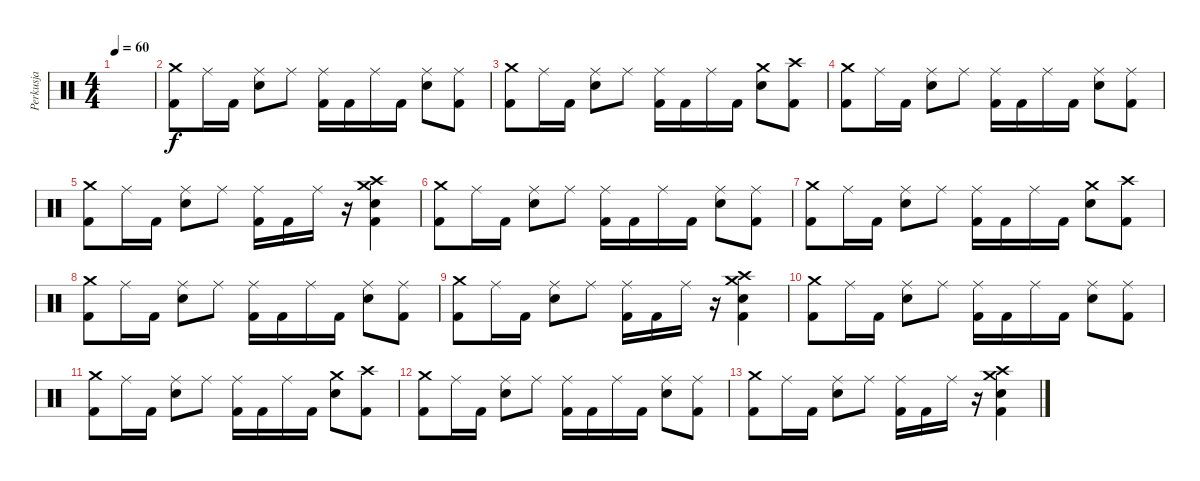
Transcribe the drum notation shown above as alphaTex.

\track ("Perkusja" "Perkusja") {instrument percussion}
\staff {score}
\articulation defaults
\ts (4 4)
\tempo 60
\clef neutral
\ks c
|
("Crash medium (hit)" "Kick (hit) 2").8 "Ride (middle)".16 "Kick (hit) 2".16 ("Ride (middle)" "Electric Snare (hit)").8 "Ride (middle)".8 ("Ride (middle)" "Kick (hit) 2").16 "Kick (hit) 2".16 "Ride (middle)".16 "Kick (hit) 2".16 ("Ride (middle)" "Electric Snare (hit)").8 ("Ride (middle)" "Kick (hit) 2").8 |
("Crash medium (hit)" "Kick (hit) 2").8 "Ride (middle)".16 "Kick (hit) 2".16 ("Ride (middle)" "Electric Snare (hit)").8 "Ride (middle)".8 ("Ride (middle)" "Kick (hit) 2").16 "Kick (hit) 2".16 "Ride (middle)".16 "Kick (hit) 2".16 ("Crash medium (hit)" "Electric Snare (hit)").8 ("Crash high (hit)" "Kick (hit) 2").8 |
("Crash medium (hit)" "Kick (hit) 2").8 "Ride (middle)".16 "Kick (hit) 2".16 ("Ride (middle)" "Electric Snare (hit)").8 "Ride (middle)".8 ("Ride (middle)" "Kick (hit) 2").16 "Kick (hit) 2".16 "Ride (middle)".16 "Kick (hit) 2".16 ("Ride (middle)" "Electric Snare (hit)").8 ("Ride (middle)" "Kick (hit) 2").8 |
("Crash medium (hit)" "Kick (hit) 2").8 "Ride (middle)".16 "Kick (hit) 2".16 ("Ride (middle)" "Electric Snare (hit)").8 "Ride (middle)".8 ("Ride (middle)" "Kick (hit) 2").16 "Kick (hit) 2".16 "Ride (middle)".16 r.16 ("Kick (hit) 2" "Crash high (hit)" "Crash medium (hit)" "Electric Snare (hit)").4 |
("Crash medium (hit)" "Kick (hit) 2").8 "Ride (middle)".16 "Kick (hit) 2".16 ("Ride (middle)" "Electric Snare (hit)").8 "Ride (middle)".8 ("Ride (middle)" "Kick (hit) 2").16 "Kick (hit) 2".16 "Ride (middle)".16 "Kick (hit) 2".16 ("Ride (middle)" "Electric Snare (hit)").8 ("Ride (middle)" "Kick (hit) 2").8 |
("Crash medium (hit)" "Kick (hit) 2").8 "Ride (middle)".16 "Kick (hit) 2".16 ("Ride (middle)" "Electric Snare (hit)").8 "Ride (middle)".8 ("Ride (middle)" "Kick (hit) 2").16 "Kick (hit) 2".16 "Ride (middle)".16 "Kick (hit) 2".16 ("Crash medium (hit)" "Electric Snare (hit)").8 ("Crash high (hit)" "Kick (hit) 2").8 |
("Crash medium (hit)" "Kick (hit) 2").8 "Ride (middle)".16 "Kick (hit) 2".16 ("Ride (middle)" "Electric Snare (hit)").8 "Ride (middle)".8 ("Ride (middle)" "Kick (hit) 2").16 "Kick (hit) 2".16 "Ride (middle)".16 "Kick (hit) 2".16 ("Ride (middle)" "Electric Snare (hit)").8 ("Ride (middle)" "Kick (hit) 2").8 |
("Crash medium (hit)" "Kick (hit) 2").8 "Ride (middle)".16 "Kick (hit) 2".16 ("Ride (middle)" "Electric Snare (hit)").8 "Ride (middle)".8 ("Ride (middle)" "Kick (hit) 2").16 "Kick (hit) 2".16 "Ride (middle)".16 r.16 ("Kick (hit) 2" "Crash high (hit)" "Crash medium (hit)" "Electric Snare (hit)").4 |
("Crash medium (hit)" "Kick (hit) 2").8 "Ride (middle)".16 "Kick (hit) 2".16 ("Ride (middle)" "Electric Snare (hit)").8 "Ride (middle)".8 ("Ride (middle)" "Kick (hit) 2").16 "Kick (hit) 2".16 "Ride (middle)".16 "Kick (hit) 2".16 ("Ride (middle)" "Electric Snare (hit)").8 ("Ride (middle)" "Kick (hit) 2").8 |
("Crash medium (hit)" "Kick (hit) 2").8 "Ride (middle)".16 "Kick (hit) 2".16 ("Ride (middle)" "Electric Snare (hit)").8 "Ride (middle)".8 ("Ride (middle)" "Kick (hit) 2").16 "Kick (hit) 2".16 "Ride (middle)".16 "Kick (hit) 2".16 ("Crash medium (hit)" "Electric Snare (hit)").8 ("Crash high (hit)" "Kick (hit) 2").8 |
("Crash medium (hit)" "Kick (hit) 2").8 "Ride (middle)".16 "Kick (hit) 2".16 ("Ride (middle)" "Electric Snare (hit)").8 "Ride (middle)".8 ("Ride (middle)" "Kick (hit) 2").16 "Kick (hit) 2".16 "Ride (middle)".16 "Kick (hit) 2".16 ("Ride (middle)" "Electric Snare (hit)").8 ("Ride (middle)" "Kick (hit) 2").8 |
("Crash medium (hit)" "Kick (hit) 2").8 "Ride (middle)".16 "Kick (hit) 2".16 ("Ride (middle)" "Electric Snare (hit)").8 "Ride (middle)".8 ("Ride (middle)" "Kick (hit) 2").16 "Kick (hit) 2".16 "Ride (middle)".16 r.16 ("Kick (hit) 2" "Crash high (hit)" "Crash medium (hit)" "Electric Snare (hit)").4
